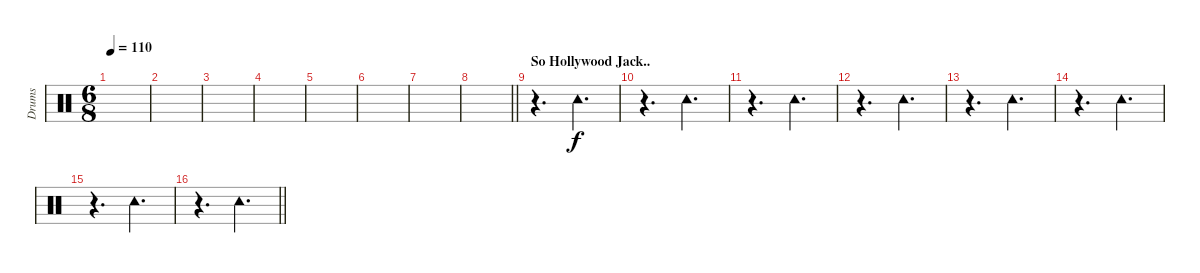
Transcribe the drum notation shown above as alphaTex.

\track ("Drums" "Drums") {instrument percussion}
\staff {score}
\articulation defaults
\ts (6 8)
\tempo 110
\clef neutral
\ks c
|
|
|
|
|
|
|
\barLineRight lightlight
|
\section ("" "So Hollywood Jack..")
r.4{d} "Tambourine (hit)".4{d} |
r.4{d} "Tambourine (hit)".4{d} |
r.4{d} "Tambourine (hit)".4{d} |
r.4{d} "Tambourine (hit)".4{d} |
r.4{d} "Tambourine (hit)".4{d} |
r.4{d} "Tambourine (hit)".4{d} |
r.4{d} "Tambourine (hit)".4{d} |
\barLineRight lightlight
r.4{d} "Tambourine (hit)".4{d}
